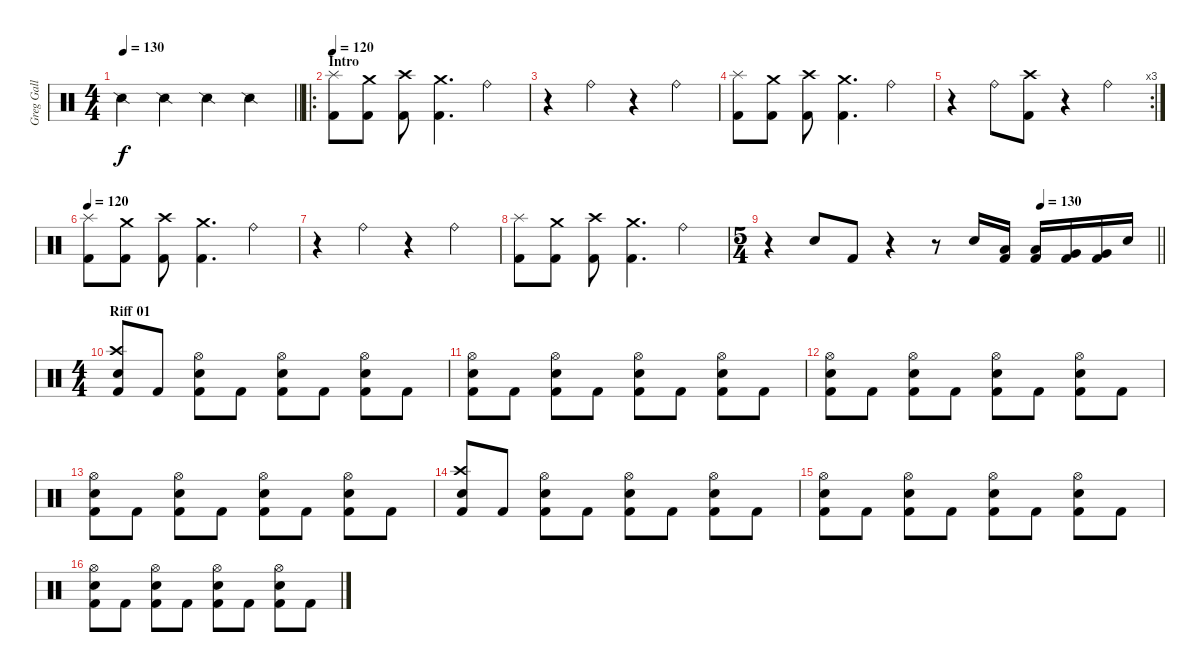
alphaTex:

\track ("Greg Gall" "Greg Gall") {instrument percussion}
\staff {score}
\articulation defaults
\ts (4 4)
\tempo 130
\clef neutral
\barLineRight lightlight
\ks c "Snare (side stick) 2".4{dy f} "Snare (side stick) 2".4 "Snare (side stick) 2".4 "Snare (side stick) 2".4
|
\ro
\section ("" "Intro")
\tempo 120
("Splash (hit)" "Kick (hit) 2").8 ("Crash medium (hit)" "Kick (hit) 2").8 ("Crash high (hit)" "Kick (hit) 2").8 ("Crash medium (hit)" "Kick (hit) 2").4{d} "Ride (bell)".4 |
r.4 "Ride (bell)".4 r.4 "Ride (bell)".4 |
("Splash (hit)" "Kick (hit) 2").8 ("Crash medium (hit)" "Kick (hit) 2").8 ("Crash high (hit)" "Kick (hit) 2").8 ("Crash medium (hit)" "Kick (hit) 2").4{d} "Ride (bell)".4 |
\rc 3
r.4 "Ride (bell)".8 ("Crash high (hit)" "Kick (hit) 2").8 r.4 "Ride (bell)".4 |
\tempo 120
("Splash (hit)" "Kick (hit) 2").8 ("Crash medium (hit)" "Kick (hit) 2").8 ("Crash high (hit)" "Kick (hit) 2").8 ("Crash medium (hit)" "Kick (hit) 2").4{d} "Ride (bell)".4 |
r.4 "Ride (bell)".4 r.4 "Ride (bell)".4 |
("Splash (hit)" "Kick (hit) 2").8 ("Crash medium (hit)" "Kick (hit) 2").8 ("Crash high (hit)" "Kick (hit) 2").8 ("Crash medium (hit)" "Kick (hit) 2").4{d} "Ride (bell)".4 |
\ts (5 4)
\tempo (130 0.7)
\barLineRight lightlight
r.4 "Electric Snare (hit)".8 "Kick (hit) 2".8 r.4 r.8 "Electric Snare (hit)".16 ("Low Tom (hit)" "Kick (hit) 2").16 ("Low Tom (hit)" "Kick (hit) 2").16 ("Very Low Tom (hit)" "Kick (hit) 2").16 ("Very Low Tom (hit)" "Kick (hit) 2").16 "Electric Snare (hit)".16 |
\ts (4 4)
\section ("" "Riff 01")
("Crash high (hit)" "Electric Snare (hit)" "Kick (hit) 2").8 "Kick (hit) 2".8 ("Hi-Hat (open)" "Electric Snare (hit)" "Kick (hit) 2").8 "Kick (hit) 2".8 ("Hi-Hat (open)" "Electric Snare (hit)" "Kick (hit) 2").8 "Kick (hit) 2".8 ("Hi-Hat (open)" "Electric Snare (hit)" "Kick (hit) 2").8 "Kick (hit) 2".8 |
("Hi-Hat (open)" "Electric Snare (hit)" "Kick (hit) 2").8 "Kick (hit) 2".8 ("Hi-Hat (open)" "Electric Snare (hit)" "Kick (hit) 2").8 "Kick (hit) 2".8 ("Hi-Hat (open)" "Electric Snare (hit)" "Kick (hit) 2").8 "Kick (hit) 2".8 ("Hi-Hat (open)" "Electric Snare (hit)" "Kick (hit) 2").8 "Kick (hit) 2".8 |
("Hi-Hat (open)" "Electric Snare (hit)" "Kick (hit) 2").8 "Kick (hit) 2".8 ("Hi-Hat (open)" "Electric Snare (hit)" "Kick (hit) 2").8 "Kick (hit) 2".8 ("Hi-Hat (open)" "Electric Snare (hit)" "Kick (hit) 2").8 "Kick (hit) 2".8 ("Hi-Hat (open)" "Electric Snare (hit)" "Kick (hit) 2").8 "Kick (hit) 2".8 |
("Hi-Hat (open)" "Electric Snare (hit)" "Kick (hit) 2").8 "Kick (hit) 2".8 ("Hi-Hat (open)" "Electric Snare (hit)" "Kick (hit) 2").8 "Kick (hit) 2".8 ("Hi-Hat (open)" "Electric Snare (hit)" "Kick (hit) 2").8 "Kick (hit) 2".8 ("Hi-Hat (open)" "Electric Snare (hit)" "Kick (hit) 2").8 "Kick (hit) 2".8 |
("Crash high (hit)" "Electric Snare (hit)" "Kick (hit) 2").8 "Kick (hit) 2".8 ("Hi-Hat (open)" "Electric Snare (hit)" "Kick (hit) 2").8 "Kick (hit) 2".8 ("Hi-Hat (open)" "Electric Snare (hit)" "Kick (hit) 2").8 "Kick (hit) 2".8 ("Hi-Hat (open)" "Electric Snare (hit)" "Kick (hit) 2").8 "Kick (hit) 2".8 |
("Hi-Hat (open)" "Electric Snare (hit)" "Kick (hit) 2").8 "Kick (hit) 2".8 ("Hi-Hat (open)" "Electric Snare (hit)" "Kick (hit) 2").8 "Kick (hit) 2".8 ("Hi-Hat (open)" "Electric Snare (hit)" "Kick (hit) 2").8 "Kick (hit) 2".8 ("Hi-Hat (open)" "Electric Snare (hit)" "Kick (hit) 2").8 "Kick (hit) 2".8 |
("Hi-Hat (open)" "Electric Snare (hit)" "Kick (hit) 2").8 "Kick (hit) 2".8 ("Hi-Hat (open)" "Electric Snare (hit)" "Kick (hit) 2").8 "Kick (hit) 2".8 ("Hi-Hat (open)" "Electric Snare (hit)" "Kick (hit) 2").8 "Kick (hit) 2".8 ("Hi-Hat (open)" "Electric Snare (hit)" "Kick (hit) 2").8 "Kick (hit) 2".8
